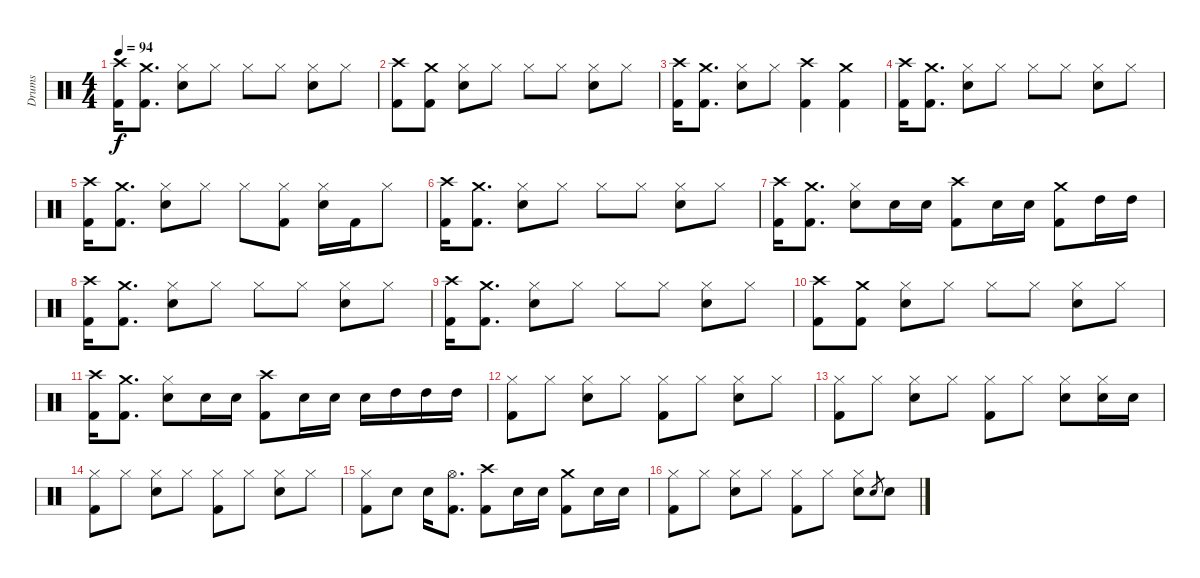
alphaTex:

\track ("Drums" "Drums") {instrument percussion}
\staff {score}
\articulation defaults
\ts (4 4)
\tempo 94
\clef neutral
\ks c
("Crash high (hit)" "Kick (hit) 2").16{dy f} ("Crash medium (hit)" "Kick (hit) 2").8{d} ("Hi-Hat (closed)" "Snare (hit) 2").8 "Hi-Hat (closed)".8 "Hi-Hat (closed)".8 "Hi-Hat (closed)".8 ("Hi-Hat (closed)" "Snare (hit) 2").8 "Hi-Hat (closed)".8 |
("Crash high (hit)" "Kick (hit) 2").8 ("Crash medium (hit)" "Kick (hit) 2").8 ("Hi-Hat (closed)" "Snare (hit) 2").8 "Hi-Hat (closed)".8 "Hi-Hat (closed)".8 "Hi-Hat (closed)".8 ("Hi-Hat (closed)" "Snare (hit) 2").8 "Hi-Hat (closed)".8 |
("Crash high (hit)" "Kick (hit) 2").16 ("Crash medium (hit)" "Kick (hit) 2").8{d} ("Hi-Hat (closed)" "Snare (hit) 2").8 "Hi-Hat (closed)".8 ("Crash high (hit)" "Kick (hit) 2").4 ("Crash medium (hit)" "Kick (hit) 2").4 |
("Crash high (hit)" "Kick (hit) 2").16 ("Crash medium (hit)" "Kick (hit) 2").8{d} ("Hi-Hat (closed)" "Snare (hit) 2").8 "Hi-Hat (closed)".8 "Hi-Hat (closed)".8 "Hi-Hat (closed)".8 ("Hi-Hat (closed)" "Snare (hit) 2").8 "Hi-Hat (closed)".8 |
("Crash high (hit)" "Kick (hit) 2").16 ("Crash medium (hit)" "Kick (hit) 2").8{d} ("Hi-Hat (closed)" "Snare (hit) 2").8 "Hi-Hat (closed)".8 "Hi-Hat (closed)".8 ("Hi-Hat (closed)" "Kick (hit) 2").8 ("Hi-Hat (closed)" "Snare (hit) 2").16 "Kick (hit) 2".16 "Hi-Hat (closed)".8 |
("Crash high (hit)" "Kick (hit) 2").16 ("Crash medium (hit)" "Kick (hit) 2").8{d} ("Hi-Hat (closed)" "Snare (hit) 2").8 "Hi-Hat (closed)".8 "Hi-Hat (closed)".8 "Hi-Hat (closed)".8 ("Hi-Hat (closed)" "Snare (hit) 2").8 "Hi-Hat (closed)".8 |
("Crash high (hit)" "Kick (hit) 2").16 ("Crash medium (hit)" "Kick (hit) 2").8{d} ("Hi-Hat (closed)" "Snare (hit) 2").8 "Snare (hit) 2".16 "Snare (hit) 2".16 ("Crash high (hit)" "Kick (hit) 2").8 "Snare (hit) 2".16 "Snare (hit) 2".16 ("Crash medium (hit)" "Kick (hit) 2").8 "High Tom (hit)".16 "High Tom (hit)".16 |
("Crash high (hit)" "Kick (hit) 2").16 ("Crash medium (hit)" "Kick (hit) 2").8{d} ("Hi-Hat (closed)" "Snare (hit) 2").8 "Hi-Hat (closed)".8 "Hi-Hat (closed)".8 "Hi-Hat (closed)".8 ("Hi-Hat (closed)" "Snare (hit) 2").8 "Hi-Hat (closed)".8 |
("Crash high (hit)" "Kick (hit) 2").16 ("Crash medium (hit)" "Kick (hit) 2").8{d} ("Hi-Hat (closed)" "Snare (hit) 2").8 "Hi-Hat (closed)".8 "Hi-Hat (closed)".8 "Hi-Hat (closed)".8 ("Hi-Hat (closed)" "Snare (hit) 2").8 "Hi-Hat (closed)".8 |
("Crash high (hit)" "Kick (hit) 2").8 ("Crash medium (hit)" "Kick (hit) 2").8 ("Hi-Hat (closed)" "Snare (hit) 2").8 "Hi-Hat (closed)".8 "Hi-Hat (closed)".8 "Hi-Hat (closed)".8 ("Hi-Hat (closed)" "Snare (hit) 2").8 "Hi-Hat (closed)".8 |
("Crash high (hit)" "Kick (hit) 2").16 ("Crash medium (hit)" "Kick (hit) 2").8{d} ("Hi-Hat (closed)" "Snare (hit) 2").8 "Snare (hit) 2".16 "Snare (hit) 2".16 ("Crash high (hit)" "Kick (hit) 2").8 "Snare (hit) 2".16 "Snare (hit) 2".16 "Snare (hit) 2".16 "High Tom (hit)".16 "High Tom (hit)".16 "High Tom (hit)".16 |
("Hi-Hat (closed)" "Kick (hit) 2").8 "Hi-Hat (closed)".8 ("Hi-Hat (closed)" "Snare (hit) 2").8 "Hi-Hat (closed)".8 ("Hi-Hat (closed)" "Kick (hit) 2").8 "Hi-Hat (closed)".8 ("Hi-Hat (closed)" "Snare (hit) 2").8 "Hi-Hat (closed)".8 |
("Hi-Hat (closed)" "Kick (hit) 2").8 "Hi-Hat (closed)".8 ("Hi-Hat (closed)" "Snare (hit) 2").8 "Hi-Hat (closed)".8 ("Hi-Hat (closed)" "Kick (hit) 2").8 "Hi-Hat (closed)".8 ("Hi-Hat (closed)" "Snare (hit) 2").8 ("Hi-Hat (closed)" "Snare (hit) 2").16 "Snare (hit) 2".16 |
("Hi-Hat (closed)" "Kick (hit) 2").8 "Hi-Hat (closed)".8 ("Hi-Hat (closed)" "Snare (hit) 2").8 "Hi-Hat (closed)".8 ("Hi-Hat (closed)" "Kick (hit) 2").8 "Hi-Hat (closed)".8 ("Hi-Hat (closed)" "Snare (hit) 2").8 "Hi-Hat (closed)".8 |
("Hi-Hat (closed)" "Kick (hit) 2").8 "Snare (hit) 2".8 "Snare (hit) 2".16 ("Hi-Hat (open)" "Kick (hit) 2").8{d} ("Crash high (hit)" "Kick (hit) 2").8 "Snare (hit) 2".16 "Snare (hit) 2".16 ("Crash medium (hit)" "Kick (hit) 2").8 "Snare (hit) 2".16 "Snare (hit) 2".16 |
("Hi-Hat (closed)" "Kick (hit) 2").8 "Hi-Hat (closed)".8 ("Hi-Hat (closed)" "Snare (hit) 2").8 "Hi-Hat (closed)".8 ("Hi-Hat (closed)" "Kick (hit) 2").8 "Hi-Hat (closed)".8 ("Hi-Hat (closed)" "Snare (hit) 2").8 "Snare (hit) 2".8{gr} "Snare (hit) 2".8
